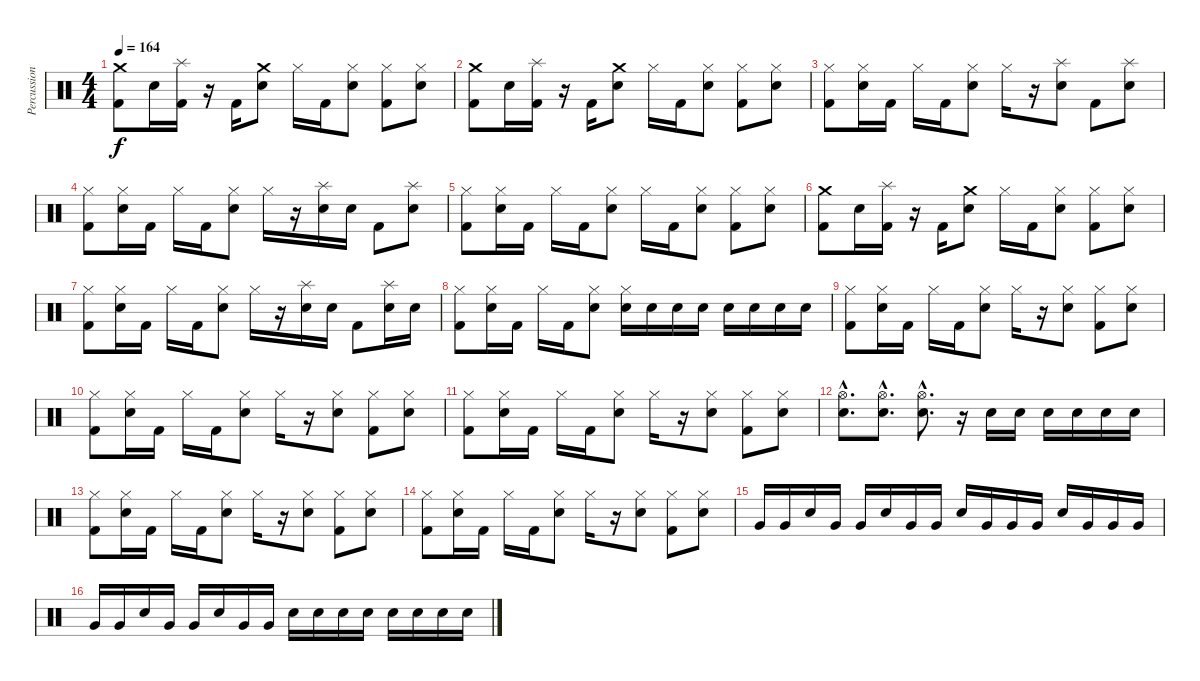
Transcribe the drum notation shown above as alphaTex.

\track ("Percussion" "Percussion") {instrument percussion}
\staff {score}
\articulation defaults
\ts (4 4)
\tempo 164
\clef neutral
\ks c
("Crash medium (hit)" "Kick (hit) 2").8{dy f} "Electric Snare (hit)".16 ("Splash (hit)" "Kick (hit) 2").16 r.16 "Kick (hit) 2".16 ("Crash medium (hit)" "Electric Snare (hit)").8 "Hi-Hat (closed)".16 "Kick (hit) 2".16 ("Hi-Hat (closed)" "Electric Snare (hit)").8 ("Hi-Hat (closed)" "Kick (hit) 2").8 ("Hi-Hat (closed)" "Electric Snare (hit)").8 |
("Crash medium (hit)" "Kick (hit) 2").8 "Electric Snare (hit)".16 ("Splash (hit)" "Kick (hit) 2").16 r.16 "Kick (hit) 2".16 ("Crash medium (hit)" "Electric Snare (hit)").8 "Hi-Hat (closed)".16 "Kick (hit) 2".16 ("Hi-Hat (closed)" "Electric Snare (hit)").8 ("Hi-Hat (closed)" "Kick (hit) 2").8 ("Hi-Hat (closed)" "Electric Snare (hit)").8 |
("Hi-Hat (closed)" "Kick (hit) 2").8 ("Hi-Hat (closed)" "Electric Snare (hit)").16 "Kick (hit) 2".16 "Hi-Hat (closed)".16 "Kick (hit) 2".16 ("Hi-Hat (closed)" "Electric Snare (hit)").8 "Hi-Hat (closed)".16 r.16 ("Splash (hit)" "Electric Snare (hit)").8 "Kick (hit) 2".8 ("Splash (hit)" "Electric Snare (hit)").8 |
("Hi-Hat (closed)" "Kick (hit) 2").8 ("Hi-Hat (closed)" "Electric Snare (hit)").16 "Kick (hit) 2".16 "Hi-Hat (closed)".16 "Kick (hit) 2".16 ("Hi-Hat (closed)" "Electric Snare (hit)").8 "Hi-Hat (closed)".16 r.16 ("Splash (hit)" "Electric Snare (hit)").16 "Electric Snare (hit)".16 "Kick (hit) 2".8 ("Splash (hit)" "Electric Snare (hit)").8 |
("Hi-Hat (closed)" "Kick (hit) 2").8 ("Hi-Hat (closed)" "Electric Snare (hit)").16 "Kick (hit) 2".16 "Hi-Hat (closed)".16 "Kick (hit) 2".16 ("Hi-Hat (closed)" "Electric Snare (hit)").8 "Hi-Hat (closed)".16 "Kick (hit) 2".16 ("Hi-Hat (closed)" "Electric Snare (hit)").8 ("Hi-Hat (closed)" "Kick (hit) 2").8 ("Hi-Hat (closed)" "Electric Snare (hit)").8 |
("Crash medium (hit)" "Kick (hit) 2").8 "Electric Snare (hit)".16 ("Splash (hit)" "Kick (hit) 2").16 r.16 "Kick (hit) 2".16 ("Crash medium (hit)" "Electric Snare (hit)").8 "Hi-Hat (closed)".16 "Kick (hit) 2".16 ("Hi-Hat (closed)" "Electric Snare (hit)").8 ("Hi-Hat (closed)" "Kick (hit) 2").8 ("Hi-Hat (closed)" "Electric Snare (hit)").8 |
("Hi-Hat (closed)" "Kick (hit) 2").8 ("Hi-Hat (closed)" "Electric Snare (hit)").16 "Kick (hit) 2".16 "Hi-Hat (closed)".16 "Kick (hit) 2".16 ("Hi-Hat (closed)" "Electric Snare (hit)").8 "Hi-Hat (closed)".16 r.16 ("Splash (hit)" "Electric Snare (hit)").16 "Electric Snare (hit)".16 "Kick (hit) 2".8 ("Splash (hit)" "Electric Snare (hit)").16 "Electric Snare (hit)".16 |
("Hi-Hat (closed)" "Kick (hit) 2").8 ("Hi-Hat (closed)" "Electric Snare (hit)").16 "Kick (hit) 2".16 "Hi-Hat (closed)".16 "Kick (hit) 2".16 ("Hi-Hat (closed)" "Electric Snare (hit)").8 ("Hi-Hat (closed)" "Electric Snare (hit)").16 "Electric Snare (hit)".16 "Electric Snare (hit)".16 "Electric Snare (hit)".16 "Electric Snare (hit)".16 "Electric Snare (hit)".16 "Electric Snare (hit)".16 "Electric Snare (hit)".16 |
("Hi-Hat (closed)" "Kick (hit) 2").8 ("Hi-Hat (closed)" "Electric Snare (hit)").16 "Kick (hit) 2".16 "Hi-Hat (closed)".16 "Kick (hit) 2".16 ("Hi-Hat (closed)" "Electric Snare (hit)").8 "Hi-Hat (closed)".16 r.16 ("Hi-Hat (closed)" "Electric Snare (hit)").8 ("Hi-Hat (closed)" "Kick (hit) 2").8 ("Hi-Hat (closed)" "Electric Snare (hit)").8 |
("Hi-Hat (closed)" "Kick (hit) 2").8 ("Hi-Hat (closed)" "Electric Snare (hit)").16 "Kick (hit) 2".16 "Hi-Hat (closed)".16 "Kick (hit) 2".16 ("Hi-Hat (closed)" "Electric Snare (hit)").8 "Hi-Hat (closed)".16 r.16 ("Hi-Hat (closed)" "Electric Snare (hit)").8 ("Hi-Hat (closed)" "Kick (hit) 2").8 ("Hi-Hat (closed)" "Electric Snare (hit)").8 |
("Hi-Hat (closed)" "Kick (hit) 2").8 ("Hi-Hat (closed)" "Electric Snare (hit)").16 "Kick (hit) 2".16 "Hi-Hat (closed)".16 "Kick (hit) 2".16 ("Hi-Hat (closed)" "Electric Snare (hit)").8 "Hi-Hat (closed)".16 r.16 ("Hi-Hat (closed)" "Electric Snare (hit)").8 ("Hi-Hat (closed)" "Kick (hit) 2").8 ("Hi-Hat (closed)" "Electric Snare (hit)").8 |
("Hi-Hat (open)"{hac} "Electric Snare (hit)"{hac}).8{d} ("Hi-Hat (open)"{hac} "Electric Snare (hit)"{hac}).8{d} ("Hi-Hat (open)"{hac} "Electric Snare (hit)"{hac}).8{d} r.16 "Electric Snare (hit)".16 "Electric Snare (hit)".16 "Electric Snare (hit)".16 "Electric Snare (hit)".16 "Electric Snare (hit)".16 "Electric Snare (hit)".16 |
("Hi-Hat (closed)" "Kick (hit) 2").8 ("Hi-Hat (closed)" "Electric Snare (hit)").16 "Kick (hit) 2".16 "Hi-Hat (closed)".16 "Kick (hit) 2".16 ("Hi-Hat (closed)" "Electric Snare (hit)").8 "Hi-Hat (closed)".16 r.16 ("Hi-Hat (closed)" "Electric Snare (hit)").8 ("Hi-Hat (closed)" "Kick (hit) 2").8 ("Hi-Hat (closed)" "Electric Snare (hit)").8 |
("Hi-Hat (closed)" "Kick (hit) 2").8 ("Hi-Hat (closed)" "Electric Snare (hit)").16 "Kick (hit) 2".16 "Hi-Hat (closed)".16 "Kick (hit) 2".16 ("Hi-Hat (closed)" "Electric Snare (hit)").8 "Hi-Hat (closed)".16 r.16 ("Hi-Hat (closed)" "Electric Snare (hit)").8 ("Hi-Hat (closed)" "Kick (hit) 2").8 ("Hi-Hat (closed)" "Electric Snare (hit)").8 |
"Very Low Tom (hit)".16 "Very Low Tom (hit)".16 "Electric Snare (hit)".16 "Very Low Tom (hit)".16 "Very Low Tom (hit)".16 "Electric Snare (hit)".16 "Very Low Tom (hit)".16 "Very Low Tom (hit)".16 "Electric Snare (hit)".16 "Very Low Tom (hit)".16 "Very Low Tom (hit)".16 "Very Low Tom (hit)".16 "Electric Snare (hit)".16 "Very Low Tom (hit)".16 "Very Low Tom (hit)".16 "Very Low Tom (hit)".16 |
"Very Low Tom (hit)".16 "Very Low Tom (hit)".16 "Electric Snare (hit)".16 "Very Low Tom (hit)".16 "Very Low Tom (hit)".16 "Electric Snare (hit)".16 "Very Low Tom (hit)".16 "Very Low Tom (hit)".16 "Electric Snare (hit)".16 "Electric Snare (hit)".16 "Electric Snare (hit)".16 "Electric Snare (hit)".16 "Electric Snare (hit)".16 "Electric Snare (hit)".16 "Electric Snare (hit)".16 "Electric Snare (hit)".16
